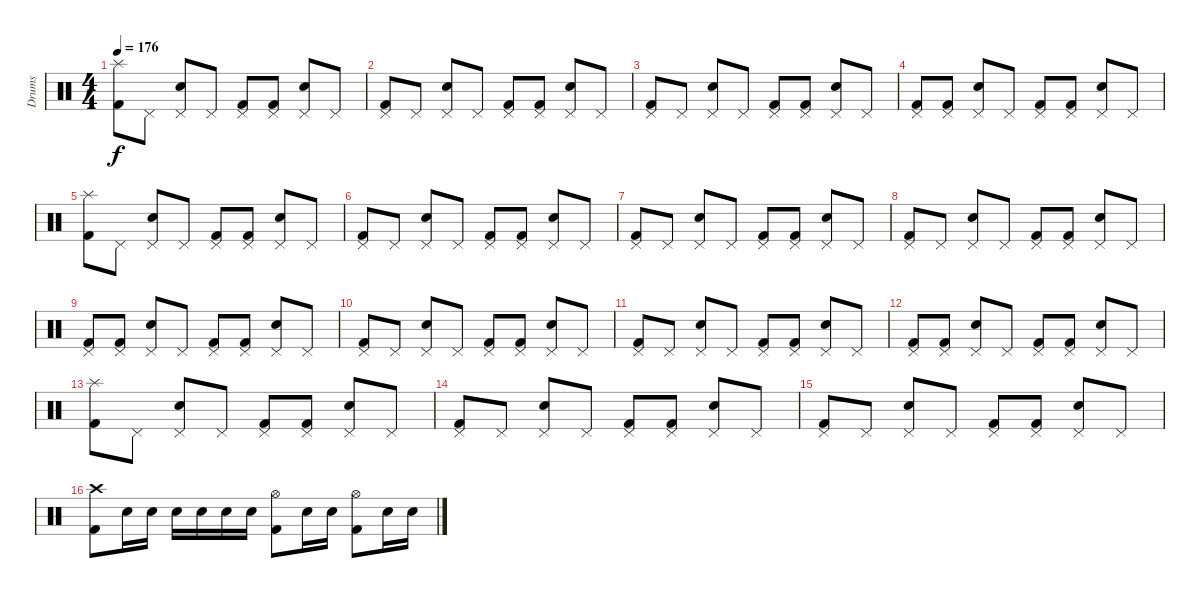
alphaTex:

\track ("Drums" "Drums") {instrument percussion}
\staff {score}
\articulation defaults
\ts (4 4)
\tempo 176
\clef neutral
\ks c
("Splash (hit)" "Kick (hit) 2").8{dy f} "Pedal Hi-Hat (hit)".8 ("Snare (hit) 2" "Pedal Hi-Hat (hit)").8 "Pedal Hi-Hat (hit)".8 ("Pedal Hi-Hat (hit)" "Kick (hit) 2").8 ("Kick (hit) 2" "Pedal Hi-Hat (hit)").8 ("Pedal Hi-Hat (hit)" "Snare (hit) 2").8 "Pedal Hi-Hat (hit)".8 |
("Pedal Hi-Hat (hit)" "Kick (hit) 2").8 "Pedal Hi-Hat (hit)".8 ("Snare (hit) 2" "Pedal Hi-Hat (hit)").8 "Pedal Hi-Hat (hit)".8 ("Pedal Hi-Hat (hit)" "Kick (hit) 2").8 ("Kick (hit) 2" "Pedal Hi-Hat (hit)").8 ("Pedal Hi-Hat (hit)" "Snare (hit) 2").8 "Pedal Hi-Hat (hit)".8 |
("Pedal Hi-Hat (hit)" "Kick (hit) 2").8 "Pedal Hi-Hat (hit)".8 ("Snare (hit) 2" "Pedal Hi-Hat (hit)").8 "Pedal Hi-Hat (hit)".8 ("Pedal Hi-Hat (hit)" "Kick (hit) 2").8 ("Kick (hit) 2" "Pedal Hi-Hat (hit)").8 ("Pedal Hi-Hat (hit)" "Snare (hit) 2").8 "Pedal Hi-Hat (hit)".8 |
("Pedal Hi-Hat (hit)" "Kick (hit) 2").8 ("Pedal Hi-Hat (hit)" "Kick (hit) 2").8 ("Snare (hit) 2" "Pedal Hi-Hat (hit)").8 "Pedal Hi-Hat (hit)".8 ("Pedal Hi-Hat (hit)" "Kick (hit) 2").8 ("Kick (hit) 2" "Pedal Hi-Hat (hit)").8 ("Pedal Hi-Hat (hit)" "Snare (hit) 2").8 "Pedal Hi-Hat (hit)".8 |
("Splash (hit)" "Kick (hit) 2").8 "Pedal Hi-Hat (hit)".8 ("Snare (hit) 2" "Pedal Hi-Hat (hit)").8 "Pedal Hi-Hat (hit)".8 ("Pedal Hi-Hat (hit)" "Kick (hit) 2").8 ("Kick (hit) 2" "Pedal Hi-Hat (hit)").8 ("Pedal Hi-Hat (hit)" "Snare (hit) 2").8 "Pedal Hi-Hat (hit)".8 |
("Pedal Hi-Hat (hit)" "Kick (hit) 2").8 "Pedal Hi-Hat (hit)".8 ("Snare (hit) 2" "Pedal Hi-Hat (hit)").8 "Pedal Hi-Hat (hit)".8 ("Pedal Hi-Hat (hit)" "Kick (hit) 2").8 ("Kick (hit) 2" "Pedal Hi-Hat (hit)").8 ("Pedal Hi-Hat (hit)" "Snare (hit) 2").8 "Pedal Hi-Hat (hit)".8 |
("Pedal Hi-Hat (hit)" "Kick (hit) 2").8 "Pedal Hi-Hat (hit)".8 ("Snare (hit) 2" "Pedal Hi-Hat (hit)").8 "Pedal Hi-Hat (hit)".8 ("Pedal Hi-Hat (hit)" "Kick (hit) 2").8 ("Kick (hit) 2" "Pedal Hi-Hat (hit)").8 ("Pedal Hi-Hat (hit)" "Snare (hit) 2").8 "Pedal Hi-Hat (hit)".8 |
("Pedal Hi-Hat (hit)" "Kick (hit) 2").8 "Pedal Hi-Hat (hit)".8 ("Snare (hit) 2" "Pedal Hi-Hat (hit)").8 "Pedal Hi-Hat (hit)".8 ("Pedal Hi-Hat (hit)" "Kick (hit) 2").8 ("Kick (hit) 2" "Pedal Hi-Hat (hit)").8 ("Pedal Hi-Hat (hit)" "Snare (hit) 2").8 "Pedal Hi-Hat (hit)".8 |
("Pedal Hi-Hat (hit)" "Kick (hit) 2").8 ("Pedal Hi-Hat (hit)" "Kick (hit) 2").8 ("Snare (hit) 2" "Pedal Hi-Hat (hit)").8 "Pedal Hi-Hat (hit)".8 ("Pedal Hi-Hat (hit)" "Kick (hit) 2").8 ("Kick (hit) 2" "Pedal Hi-Hat (hit)").8 ("Pedal Hi-Hat (hit)" "Snare (hit) 2").8 "Pedal Hi-Hat (hit)".8 |
("Pedal Hi-Hat (hit)" "Kick (hit) 2").8 "Pedal Hi-Hat (hit)".8 ("Snare (hit) 2" "Pedal Hi-Hat (hit)").8 "Pedal Hi-Hat (hit)".8 ("Pedal Hi-Hat (hit)" "Kick (hit) 2").8 ("Kick (hit) 2" "Pedal Hi-Hat (hit)").8 ("Pedal Hi-Hat (hit)" "Snare (hit) 2").8 "Pedal Hi-Hat (hit)".8 |
("Pedal Hi-Hat (hit)" "Kick (hit) 2").8 "Pedal Hi-Hat (hit)".8 ("Snare (hit) 2" "Pedal Hi-Hat (hit)").8 "Pedal Hi-Hat (hit)".8 ("Pedal Hi-Hat (hit)" "Kick (hit) 2").8 ("Kick (hit) 2" "Pedal Hi-Hat (hit)").8 ("Pedal Hi-Hat (hit)" "Snare (hit) 2").8 "Pedal Hi-Hat (hit)".8 |
("Pedal Hi-Hat (hit)" "Kick (hit) 2").8 ("Pedal Hi-Hat (hit)" "Kick (hit) 2").8 ("Snare (hit) 2" "Pedal Hi-Hat (hit)").8 "Pedal Hi-Hat (hit)".8 ("Pedal Hi-Hat (hit)" "Kick (hit) 2").8 ("Kick (hit) 2" "Pedal Hi-Hat (hit)").8 ("Pedal Hi-Hat (hit)" "Snare (hit) 2").8 "Pedal Hi-Hat (hit)".8 |
("Splash (hit)" "Kick (hit) 2").8 "Pedal Hi-Hat (hit)".8 ("Snare (hit) 2" "Pedal Hi-Hat (hit)").8 "Pedal Hi-Hat (hit)".8 ("Pedal Hi-Hat (hit)" "Kick (hit) 2").8 ("Kick (hit) 2" "Pedal Hi-Hat (hit)").8 ("Pedal Hi-Hat (hit)" "Snare (hit) 2").8 "Pedal Hi-Hat (hit)".8 |
("Pedal Hi-Hat (hit)" "Kick (hit) 2").8 "Pedal Hi-Hat (hit)".8 ("Snare (hit) 2" "Pedal Hi-Hat (hit)").8 "Pedal Hi-Hat (hit)".8 ("Pedal Hi-Hat (hit)" "Kick (hit) 2").8 ("Kick (hit) 2" "Pedal Hi-Hat (hit)").8 ("Pedal Hi-Hat (hit)" "Snare (hit) 2").8 "Pedal Hi-Hat (hit)".8 |
("Pedal Hi-Hat (hit)" "Kick (hit) 2").8 "Pedal Hi-Hat (hit)".8 ("Snare (hit) 2" "Pedal Hi-Hat (hit)").8 "Pedal Hi-Hat (hit)".8 ("Pedal Hi-Hat (hit)" "Kick (hit) 2").8 ("Kick (hit) 2" "Pedal Hi-Hat (hit)").8 ("Pedal Hi-Hat (hit)" "Snare (hit) 2").8 "Pedal Hi-Hat (hit)".8 |
("Crash high (hit)" "Kick (hit) 2").8 "Snare (hit) 2".16 "Snare (hit) 2".16 "Snare (hit) 2".16 "Snare (hit) 2".16 "Snare (hit) 2".16 "Snare (hit) 2".16 ("Hi-Hat (open)" "Kick (hit) 2").8 "Snare (hit) 2".16 "Snare (hit) 2".16 ("Hi-Hat (open)" "Kick (hit) 2").8 "Snare (hit) 2".16 "Snare (hit) 2".16
